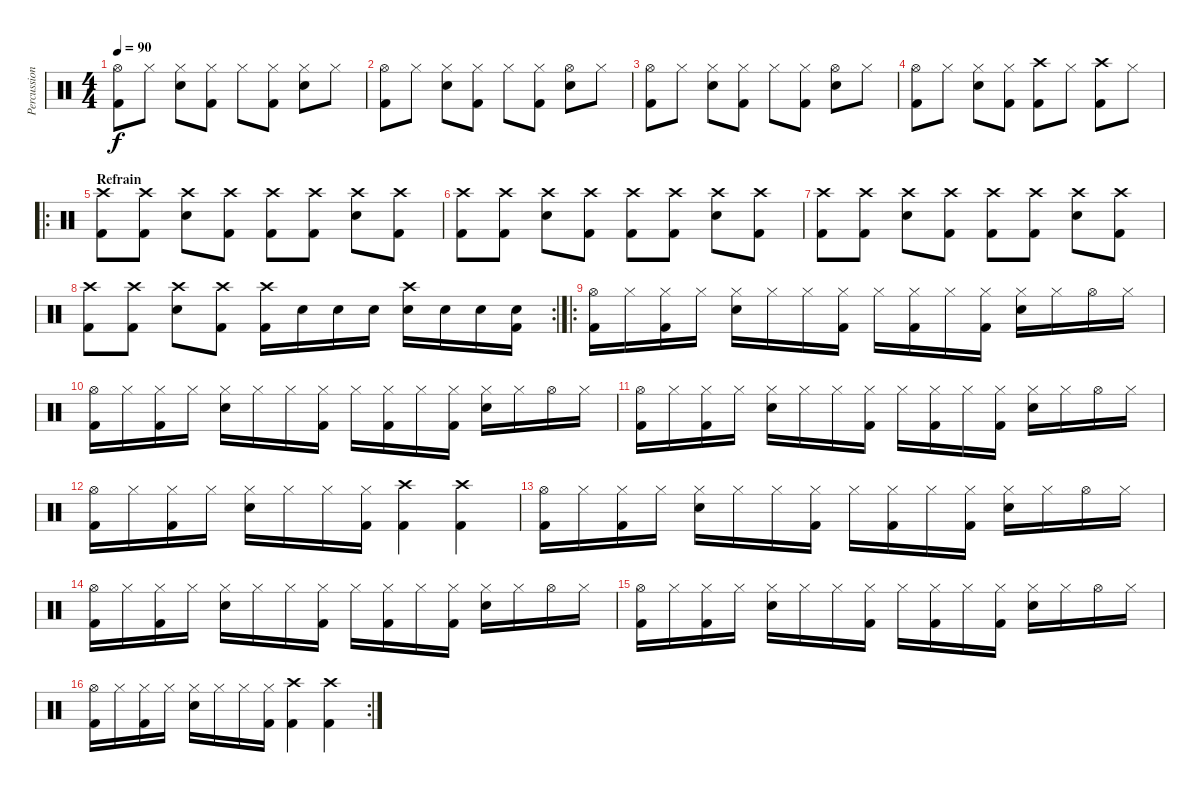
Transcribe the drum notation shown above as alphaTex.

\track ("Percussions" "Percussion") {instrument percussion}
\staff {score}
\articulation defaults
\ts (4 4)
\tempo 90
\clef neutral
\ks c
("Kick (hit) 2" "Hi-Hat (open)").8{dy f} "Hi-Hat (closed)".8 ("Snare (hit) 2" "Hi-Hat (closed)").8 ("Kick (hit) 2" "Hi-Hat (closed)").8 "Hi-Hat (closed)".8 ("Kick (hit) 2" "Hi-Hat (closed)").8 ("Snare (hit) 2" "Hi-Hat (closed)").8 "Hi-Hat (closed)".8 |
("Kick (hit) 2" "Hi-Hat (open)").8 "Hi-Hat (closed)".8 ("Snare (hit) 2" "Hi-Hat (closed)").8 ("Kick (hit) 2" "Hi-Hat (closed)").8 "Hi-Hat (closed)".8 ("Kick (hit) 2" "Hi-Hat (closed)").8 ("Snare (hit) 2" "Hi-Hat (open)").8 "Hi-Hat (closed)".8 |
("Kick (hit) 2" "Hi-Hat (open)").8 "Hi-Hat (closed)".8 ("Snare (hit) 2" "Hi-Hat (closed)").8 ("Kick (hit) 2" "Hi-Hat (closed)").8 "Hi-Hat (closed)".8 ("Kick (hit) 2" "Hi-Hat (closed)").8 ("Snare (hit) 2" "Hi-Hat (open)").8 "Hi-Hat (closed)".8 |
("Kick (hit) 2" "Hi-Hat (open)").8 "Hi-Hat (closed)".8 ("Snare (hit) 2" "Hi-Hat (closed)").8 ("Kick (hit) 2" "Hi-Hat (closed)").8 ("Kick (hit) 2" "Crash high (hit)").8 "Hi-Hat (closed)".8 ("Kick (hit) 2" "Crash high (hit)").8 "Hi-Hat (closed)".8 |
\ro
\section ("" "Refrain")
("Kick (hit) 2" "Crash high (hit)").8 ("Kick (hit) 2" "Crash high (hit)").8 ("Snare (hit) 2" "Crash high (hit)").8 ("Kick (hit) 2" "Crash high (hit)").8 ("Kick (hit) 2" "Crash high (hit)").8 ("Kick (hit) 2" "Crash high (hit)").8 ("Snare (hit) 2" "Crash high (hit)").8 ("Kick (hit) 2" "Crash high (hit)").8 |
("Kick (hit) 2" "Crash high (hit)").8 ("Kick (hit) 2" "Crash high (hit)").8 ("Snare (hit) 2" "Crash high (hit)").8 ("Kick (hit) 2" "Crash high (hit)").8 ("Kick (hit) 2" "Crash high (hit)").8 ("Kick (hit) 2" "Crash high (hit)").8 ("Snare (hit) 2" "Crash high (hit)").8 ("Kick (hit) 2" "Crash high (hit)").8 |
("Kick (hit) 2" "Crash high (hit)").8 ("Kick (hit) 2" "Crash high (hit)").8 ("Snare (hit) 2" "Crash high (hit)").8 ("Kick (hit) 2" "Crash high (hit)").8 ("Kick (hit) 2" "Crash high (hit)").8 ("Kick (hit) 2" "Crash high (hit)").8 ("Snare (hit) 2" "Crash high (hit)").8 ("Kick (hit) 2" "Crash high (hit)").8 |
\rc 2
("Kick (hit) 2" "Crash high (hit)").8 ("Kick (hit) 2" "Crash high (hit)").8 ("Snare (hit) 2" "Crash high (hit)").8 ("Kick (hit) 2" "Crash high (hit)").8 ("Kick (hit) 2" "Crash high (hit)").16 "Snare (hit) 2".16 "Snare (hit) 2".16 "Snare (hit) 2".16 ("Snare (hit) 2" "Crash high (hit)").16 "Snare (hit) 2".16 "Snare (hit) 2".16 ("Kick (hit) 2" "Snare (hit) 2").16 |
\ro
("Kick (hit) 2" "Hi-Hat (open)").16 "Hi-Hat (closed)".16 ("Kick (hit) 2" "Hi-Hat (closed)").16 "Hi-Hat (closed)".16 ("Snare (hit) 2" "Hi-Hat (closed)").16 "Hi-Hat (closed)".16 "Hi-Hat (closed)".16 ("Kick (hit) 2" "Hi-Hat (closed)").16 "Hi-Hat (closed)".16 ("Kick (hit) 2" "Hi-Hat (closed)").16 "Hi-Hat (closed)".16 ("Kick (hit) 2" "Hi-Hat (closed)").16 ("Snare (hit) 2" "Hi-Hat (closed)").16 "Hi-Hat (closed)".16 "Hi-Hat (open)".16 "Hi-Hat (closed)".16 |
("Kick (hit) 2" "Hi-Hat (open)").16 "Hi-Hat (closed)".16 ("Kick (hit) 2" "Hi-Hat (closed)").16 "Hi-Hat (closed)".16 ("Snare (hit) 2" "Hi-Hat (closed)").16 "Hi-Hat (closed)".16 "Hi-Hat (closed)".16 ("Kick (hit) 2" "Hi-Hat (closed)").16 "Hi-Hat (closed)".16 ("Kick (hit) 2" "Hi-Hat (closed)").16 "Hi-Hat (closed)".16 ("Kick (hit) 2" "Hi-Hat (closed)").16 ("Snare (hit) 2" "Hi-Hat (closed)").16 "Hi-Hat (closed)".16 "Hi-Hat (open)".16 "Hi-Hat (closed)".16 |
("Kick (hit) 2" "Hi-Hat (open)").16 "Hi-Hat (closed)".16 ("Kick (hit) 2" "Hi-Hat (closed)").16 "Hi-Hat (closed)".16 ("Snare (hit) 2" "Hi-Hat (closed)").16 "Hi-Hat (closed)".16 "Hi-Hat (closed)".16 ("Kick (hit) 2" "Hi-Hat (closed)").16 "Hi-Hat (closed)".16 ("Kick (hit) 2" "Hi-Hat (closed)").16 "Hi-Hat (closed)".16 ("Kick (hit) 2" "Hi-Hat (closed)").16 ("Snare (hit) 2" "Hi-Hat (closed)").16 "Hi-Hat (closed)".16 "Hi-Hat (open)".16 "Hi-Hat (closed)".16 |
("Kick (hit) 2" "Hi-Hat (open)").16 "Hi-Hat (closed)".16 ("Kick (hit) 2" "Hi-Hat (closed)").16 "Hi-Hat (closed)".16 ("Snare (hit) 2" "Hi-Hat (closed)").16 "Hi-Hat (closed)".16 "Hi-Hat (closed)".16 ("Kick (hit) 2" "Hi-Hat (closed)").16 ("Kick (hit) 2" "Crash high (hit)").4 ("Kick (hit) 2" "Crash high (hit)").4 |
("Kick (hit) 2" "Hi-Hat (open)").16 "Hi-Hat (closed)".16 ("Kick (hit) 2" "Hi-Hat (closed)").16 "Hi-Hat (closed)".16 ("Snare (hit) 2" "Hi-Hat (closed)").16 "Hi-Hat (closed)".16 "Hi-Hat (closed)".16 ("Kick (hit) 2" "Hi-Hat (closed)").16 "Hi-Hat (closed)".16 ("Kick (hit) 2" "Hi-Hat (closed)").16 "Hi-Hat (closed)".16 ("Kick (hit) 2" "Hi-Hat (closed)").16 ("Snare (hit) 2" "Hi-Hat (closed)").16 "Hi-Hat (closed)".16 "Hi-Hat (open)".16 "Hi-Hat (closed)".16 |
("Kick (hit) 2" "Hi-Hat (open)").16 "Hi-Hat (closed)".16 ("Kick (hit) 2" "Hi-Hat (closed)").16 "Hi-Hat (closed)".16 ("Snare (hit) 2" "Hi-Hat (closed)").16 "Hi-Hat (closed)".16 "Hi-Hat (closed)".16 ("Kick (hit) 2" "Hi-Hat (closed)").16 "Hi-Hat (closed)".16 ("Kick (hit) 2" "Hi-Hat (closed)").16 "Hi-Hat (closed)".16 ("Kick (hit) 2" "Hi-Hat (closed)").16 ("Snare (hit) 2" "Hi-Hat (closed)").16 "Hi-Hat (closed)".16 "Hi-Hat (open)".16 "Hi-Hat (closed)".16 |
("Kick (hit) 2" "Hi-Hat (open)").16 "Hi-Hat (closed)".16 ("Kick (hit) 2" "Hi-Hat (closed)").16 "Hi-Hat (closed)".16 ("Snare (hit) 2" "Hi-Hat (closed)").16 "Hi-Hat (closed)".16 "Hi-Hat (closed)".16 ("Kick (hit) 2" "Hi-Hat (closed)").16 "Hi-Hat (closed)".16 ("Kick (hit) 2" "Hi-Hat (closed)").16 "Hi-Hat (closed)".16 ("Kick (hit) 2" "Hi-Hat (closed)").16 ("Snare (hit) 2" "Hi-Hat (closed)").16 "Hi-Hat (closed)".16 "Hi-Hat (open)".16 "Hi-Hat (closed)".16 |
\rc 2
("Kick (hit) 2" "Hi-Hat (open)").16 "Hi-Hat (closed)".16 ("Kick (hit) 2" "Hi-Hat (closed)").16 "Hi-Hat (closed)".16 ("Snare (hit) 2" "Hi-Hat (closed)").16 "Hi-Hat (closed)".16 "Hi-Hat (closed)".16 ("Kick (hit) 2" "Hi-Hat (closed)").16 ("Kick (hit) 2" "Crash high (hit)").4 ("Kick (hit) 2" "Crash high (hit)").4
